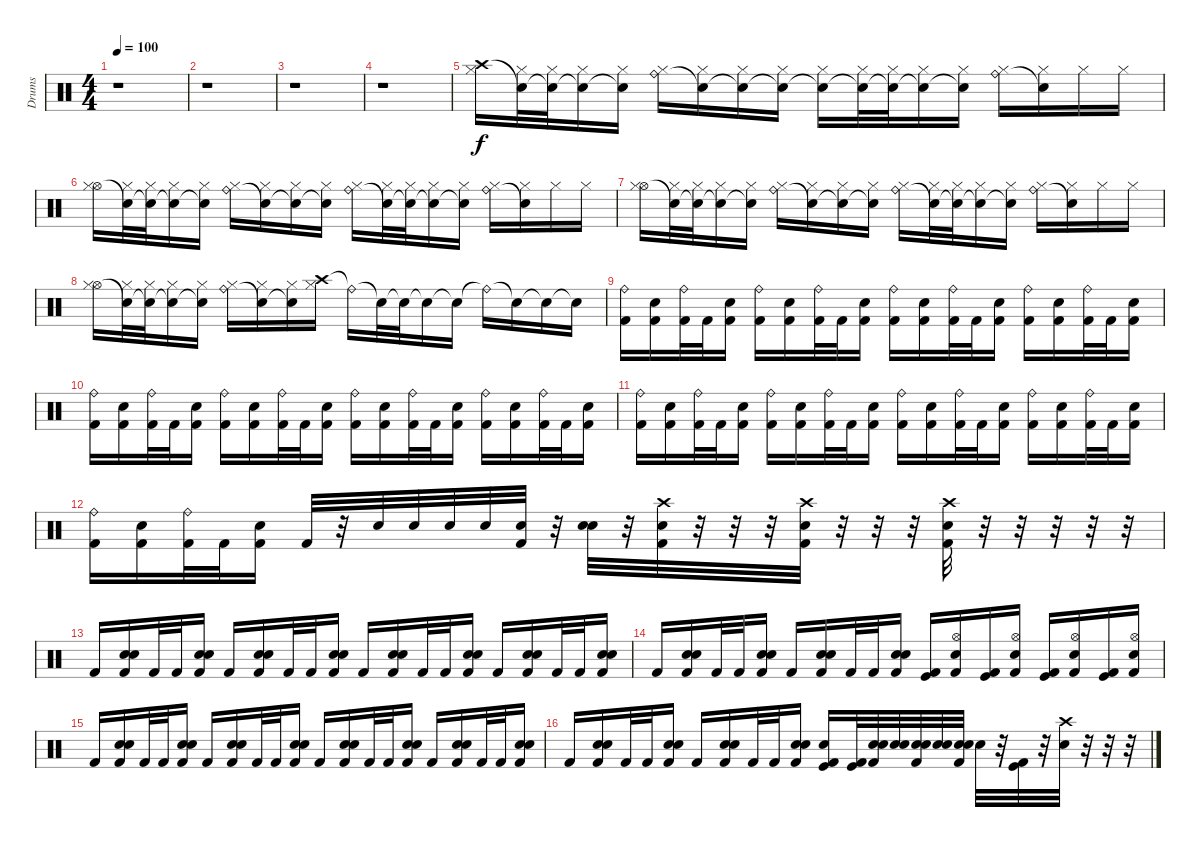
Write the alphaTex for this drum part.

\track ("Drums" "Drums") {instrument percussion}
\staff {score}
\articulation defaults
\ts (4 4)
\tempo 100
\clef neutral
\ks c
r.1{dy f} |
r.1 |
r.1 |
r.1 |
("Crash high (hit)" "Hi-Hat (closed)").16 ("Snare (hit)"{t} "Hi-Hat (closed)").32 ("Snare (hit)"{t} "Hi-Hat (closed)").32 ("Snare (hit)"{t} "Hi-Hat (closed)").16 ("Snare (hit)"{t} "Hi-Hat (closed)").16 ("Ride (bell)" "Hi-Hat (closed)").16 ("Snare (hit)"{t} "Hi-Hat (closed)").16 ("Snare (hit)"{t} "Hi-Hat (closed)").16 ("Snare (hit)"{t} "Hi-Hat (closed)").16 ("Snare (hit)"{t} "Hi-Hat (closed)").16 ("Snare (hit)"{t} "Hi-Hat (closed)").32 ("Snare (hit)"{t} "Hi-Hat (closed)").32 ("Snare (hit)"{t} "Hi-Hat (closed)").16 ("Snare (hit)"{t} "Hi-Hat (closed)").16 ("Ride (bell)" "Hi-Hat (closed)").16 ("Snare (hit)"{t} "Hi-Hat (closed)").16 "Hi-Hat (closed)".16 "Hi-Hat (closed)".16 |
("Hi-Hat (open)" "Hi-Hat (closed)").16 ("Snare (hit)"{t} "Hi-Hat (closed)").32 ("Snare (hit)"{t} "Hi-Hat (closed)").32 ("Snare (hit)"{t} "Hi-Hat (closed)").16 ("Snare (hit)"{t} "Hi-Hat (closed)").16 ("Ride (bell)" "Hi-Hat (closed)").16 ("Snare (hit)"{t} "Hi-Hat (closed)").16 ("Snare (hit)"{t} "Hi-Hat (closed)").16 ("Snare (hit)"{t} "Hi-Hat (closed)").16 ("Ride (bell)" "Hi-Hat (closed)").16 ("Snare (hit)"{t} "Hi-Hat (closed)").32 ("Snare (hit)"{t} "Hi-Hat (closed)").32 ("Snare (hit)"{t} "Hi-Hat (closed)").16 ("Snare (hit)"{t} "Hi-Hat (closed)").16 ("Ride (bell)" "Hi-Hat (closed)").16 ("Snare (hit)"{t} "Hi-Hat (closed)").16 "Hi-Hat (closed)".16 "Hi-Hat (closed)".16 |
("Hi-Hat (open)" "Hi-Hat (closed)").16 ("Snare (hit)"{t} "Hi-Hat (closed)").32 ("Snare (hit)"{t} "Hi-Hat (closed)").32 ("Snare (hit)"{t} "Hi-Hat (closed)").16 ("Snare (hit)"{t} "Hi-Hat (closed)").16 ("Ride (bell)" "Hi-Hat (closed)").16 ("Snare (hit)"{t} "Hi-Hat (closed)").16 ("Snare (hit)"{t} "Hi-Hat (closed)").16 ("Snare (hit)"{t} "Hi-Hat (closed)").16 ("Ride (bell)" "Hi-Hat (closed)").16 ("Snare (hit)"{t} "Hi-Hat (closed)").32 ("Snare (hit)"{t} "Hi-Hat (closed)").32 ("Snare (hit)"{t} "Hi-Hat (closed)").16 ("Snare (hit)"{t} "Hi-Hat (closed)").16 ("Ride (bell)" "Hi-Hat (closed)").16 ("Snare (hit)"{t} "Hi-Hat (closed)").16 "Hi-Hat (closed)".16 "Hi-Hat (closed)".16 |
("Hi-Hat (open)" "Hi-Hat (closed)").16 ("Snare (hit)"{t} "Hi-Hat (closed)").32 ("Snare (hit)"{t} "Hi-Hat (closed)").32 ("Snare (hit)"{t} "Hi-Hat (closed)").16 ("Snare (hit)"{t} "Hi-Hat (closed)").16 ("Ride (bell)" "Hi-Hat (closed)").16 ("Snare (hit)"{t} "Hi-Hat (closed)").16 ("Snare (hit)"{t} "Hi-Hat (closed)").16 ("Crash high (hit)" "Hi-Hat (closed)").16 "Ride (bell)"{t}.16 "Snare (hit)"{t}.32 "Snare (hit)"{t}.32 "Snare (hit)"{t}.16 "Snare (hit)"{t}.16 "Ride (bell)"{t}.16 "Snare (hit)"{t}.16 "Snare (hit)"{t}.16 "Snare (hit)"{t}.16 |
("Ride (bell)" "Kick (hit) 2").16 ("Electric Snare (hit)" "Kick (hit) 2").16 ("Ride (bell)" "Kick (hit) 2").32 "Kick (hit) 2".32 ("Electric Snare (hit)" "Kick (hit) 2").16 ("Ride (bell)" "Kick (hit) 2").16 ("Electric Snare (hit)" "Kick (hit) 2").16 ("Ride (bell)" "Kick (hit) 2").32 "Kick (hit) 2".32 ("Electric Snare (hit)" "Kick (hit) 2").16 ("Ride (bell)" "Kick (hit) 2").16 ("Electric Snare (hit)" "Kick (hit) 2").16 ("Ride (bell)" "Kick (hit) 2").32 "Kick (hit) 2".32 ("Electric Snare (hit)" "Kick (hit) 2").16 ("Ride (bell)" "Kick (hit) 2").16 ("Electric Snare (hit)" "Kick (hit) 2").16 ("Ride (bell)" "Kick (hit) 2").32 "Kick (hit) 2".32 ("Electric Snare (hit)" "Kick (hit) 2").16 |
("Ride (bell)" "Kick (hit) 2").16 ("Electric Snare (hit)" "Kick (hit) 2").16 ("Ride (bell)" "Kick (hit) 2").32 "Kick (hit) 2".32 ("Electric Snare (hit)" "Kick (hit) 2").16 ("Ride (bell)" "Kick (hit) 2").16 ("Electric Snare (hit)" "Kick (hit) 2").16 ("Ride (bell)" "Kick (hit) 2").32 "Kick (hit) 2".32 ("Electric Snare (hit)" "Kick (hit) 2").16 ("Ride (bell)" "Kick (hit) 2").16 ("Electric Snare (hit)" "Kick (hit) 2").16 ("Ride (bell)" "Kick (hit) 2").32 "Kick (hit) 2".32 ("Electric Snare (hit)" "Kick (hit) 2").16 ("Ride (bell)" "Kick (hit) 2").16 ("Electric Snare (hit)" "Kick (hit) 2").16 ("Ride (bell)" "Kick (hit) 2").32 "Kick (hit) 2".32 ("Electric Snare (hit)" "Kick (hit) 2").16 |
("Ride (bell)" "Kick (hit) 2").16 ("Electric Snare (hit)" "Kick (hit) 2").16 ("Ride (bell)" "Kick (hit) 2").32 "Kick (hit) 2".32 ("Electric Snare (hit)" "Kick (hit) 2").16 ("Ride (bell)" "Kick (hit) 2").16 ("Electric Snare (hit)" "Kick (hit) 2").16 ("Ride (bell)" "Kick (hit) 2").32 "Kick (hit) 2".32 ("Electric Snare (hit)" "Kick (hit) 2").16 ("Ride (bell)" "Kick (hit) 2").16 ("Electric Snare (hit)" "Kick (hit) 2").16 ("Ride (bell)" "Kick (hit) 2").32 "Kick (hit) 2".32 ("Electric Snare (hit)" "Kick (hit) 2").16 ("Ride (bell)" "Kick (hit) 2").16 ("Electric Snare (hit)" "Kick (hit) 2").16 ("Ride (bell)" "Kick (hit) 2").32 "Kick (hit) 2".32 ("Electric Snare (hit)" "Kick (hit) 2").16 |
("Ride (bell)" "Kick (hit) 2").16 ("Electric Snare (hit)" "Kick (hit) 2").16 ("Ride (bell)" "Kick (hit) 2").32 "Kick (hit) 2".32 ("Electric Snare (hit)" "Kick (hit) 2").16 "Kick (hit) 2".32 r.32 "Electric Snare (hit)".32 "Electric Snare (hit)".32 "Electric Snare (hit)".32 "Electric Snare (hit)".32 ("Electric Snare (hit)" "Kick (hit) 2").32 r.32 ("Electric Snare (hit)" "Electric Snare (hit)").32 r.32 ("Crash high (hit)" "Electric Snare (hit)" "Kick (hit) 2").32 r.32 r.32 r.32 ("Crash high (hit)" "Electric Snare (hit)" "Kick (hit) 2").32 r.32 r.32 r.32 ("Crash high (hit)" "Electric Snare (hit)" "Kick (hit) 2").32 r.32 r.32 r.32 r.32 r.32 |
"Kick (hit) 2".16 ("Electric Snare (hit)" "Snare (hit) 2" "Kick (hit) 2").16 "Kick (hit) 2".32 "Kick (hit) 2".32 ("Electric Snare (hit)" "Snare (hit) 2" "Kick (hit) 2").16 "Kick (hit) 2".16 ("Electric Snare (hit)" "Snare (hit) 2" "Kick (hit) 2").16 "Kick (hit) 2".32 "Kick (hit) 2".32 ("Electric Snare (hit)" "Snare (hit) 2" "Kick (hit) 2").16 "Kick (hit) 2".16 ("Electric Snare (hit)" "Snare (hit) 2" "Kick (hit) 2").16 "Kick (hit) 2".32 "Kick (hit) 2".32 ("Electric Snare (hit)" "Snare (hit) 2" "Kick (hit) 2").16 "Kick (hit) 2".16 ("Electric Snare (hit)" "Snare (hit) 2" "Kick (hit) 2").16 "Kick (hit) 2".32 "Kick (hit) 2".32 ("Electric Snare (hit)" "Snare (hit) 2" "Kick (hit) 2").16 |
"Kick (hit) 2".16 ("Electric Snare (hit)" "Snare (hit) 2" "Kick (hit) 2").16 "Kick (hit) 2".32 "Kick (hit) 2".32 ("Electric Snare (hit)" "Snare (hit) 2" "Kick (hit) 2").16 "Kick (hit) 2".16 ("Electric Snare (hit)" "Snare (hit) 2" "Kick (hit) 2").16 "Kick (hit) 2".32 "Kick (hit) 2".32 ("Electric Snare (hit)" "Snare (hit) 2" "Kick (hit) 2").16 ("Kick (hit)" "Kick (hit) 2").16 ("Hi-Hat (open)" "Snare (hit) 2" "Kick (hit) 2").16 ("Kick (hit)" "Kick (hit) 2").16 ("Hi-Hat (open)" "Snare (hit) 2" "Kick (hit) 2").16 ("Kick (hit)" "Kick (hit) 2").16 ("Hi-Hat (open)" "Snare (hit) 2" "Kick (hit) 2").16 ("Kick (hit)" "Kick (hit) 2").16 ("Hi-Hat (open)" "Snare (hit) 2" "Kick (hit) 2").16 |
"Kick (hit) 2".16 ("Electric Snare (hit)" "Snare (hit) 2" "Kick (hit) 2").16 "Kick (hit) 2".32 "Kick (hit) 2".32 ("Electric Snare (hit)" "Snare (hit) 2" "Kick (hit) 2").16 "Kick (hit) 2".16 ("Electric Snare (hit)" "Snare (hit) 2" "Kick (hit) 2").16 "Kick (hit) 2".32 "Kick (hit) 2".32 ("Electric Snare (hit)" "Snare (hit) 2" "Kick (hit) 2").16 "Kick (hit) 2".16 ("Electric Snare (hit)" "Snare (hit) 2" "Kick (hit) 2").16 "Kick (hit) 2".32 "Kick (hit) 2".32 ("Electric Snare (hit)" "Snare (hit) 2" "Kick (hit) 2").16 "Kick (hit) 2".16 ("Electric Snare (hit)" "Snare (hit) 2" "Kick (hit) 2").16 "Kick (hit) 2".32 "Kick (hit) 2".32 ("Electric Snare (hit)" "Snare (hit) 2" "Kick (hit) 2").16 |
"Kick (hit) 2".16 ("Electric Snare (hit)" "Snare (hit) 2" "Kick (hit) 2").16 "Kick (hit) 2".32 "Kick (hit) 2".32 ("Electric Snare (hit)" "Snare (hit) 2" "Kick (hit) 2").16 "Kick (hit) 2".16 ("Electric Snare (hit)" "Snare (hit) 2" "Kick (hit) 2").16 "Kick (hit) 2".32 "Kick (hit) 2".32 ("Electric Snare (hit)" "Snare (hit) 2" "Kick (hit) 2").16 ("Electric Snare (hit)" "Kick (hit)" "Kick (hit) 2").16 ("Kick (hit)" "Kick (hit) 2").32 ("Snare (hit) 2" "Electric Snare (hit)" "Kick (hit) 2").32 ("Snare (hit) 2" "Electric Snare (hit)").32 ("Snare (hit) 2" "Electric Snare (hit)" "Kick (hit) 2").32 ("Snare (hit) 2" "Electric Snare (hit)").32 ("Snare (hit) 2" "Electric Snare (hit)" "Kick (hit) 2").32 "Electric Snare (hit)".32 r.32 ("Kick (hit) 2" "Kick (hit)").32 r.32 ("Crash high (hit)" "Electric Snare (hit)").32 r.32 r.32 r.32
